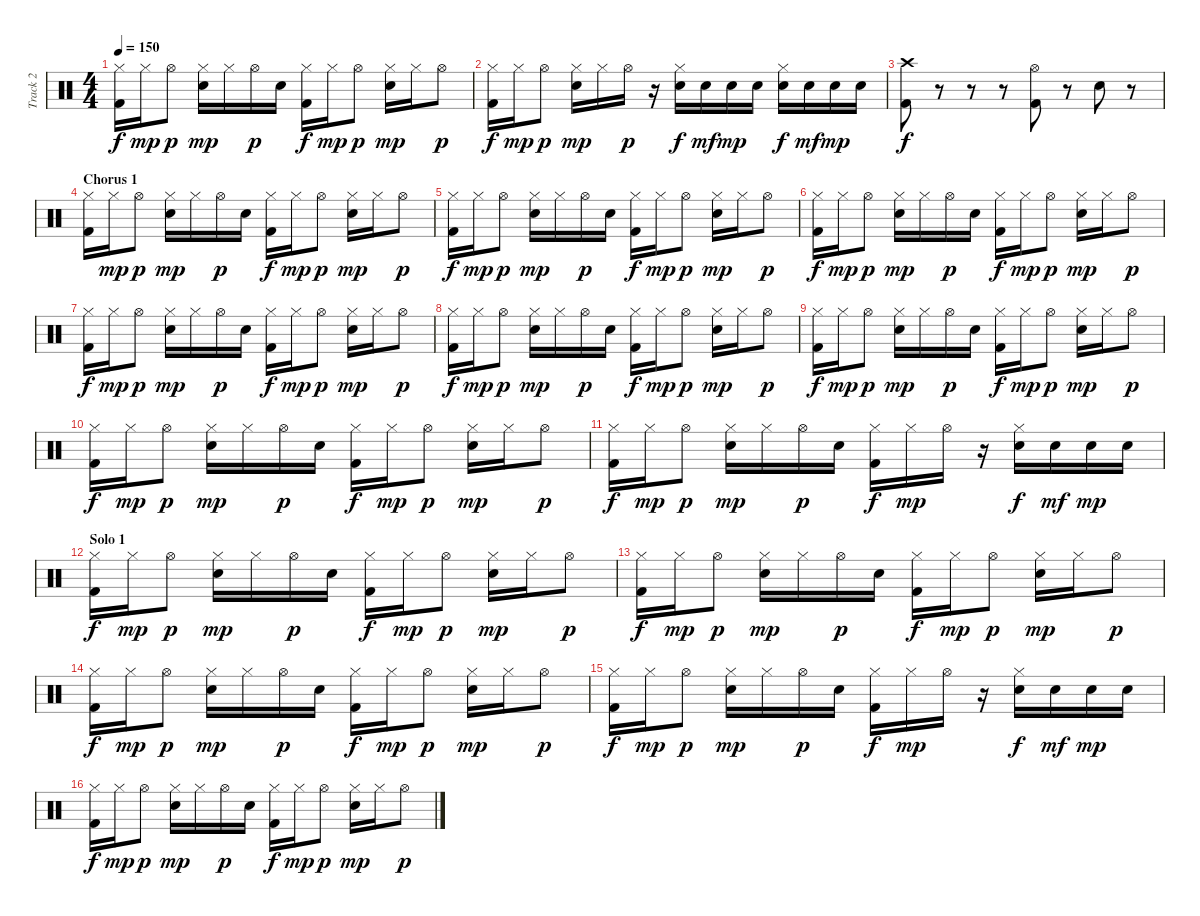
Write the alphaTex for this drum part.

\track ("Track 2" "Track 2") {instrument percussion}
\staff {score}
\articulation defaults
\ts (4 4)
\tempo 150
\clef neutral
\ks c
("Hi-Hat (closed)" "Kick (hit) 2").16{dy f} "Hi-Hat (closed)".16{dy mp} "Hi-Hat (open)".8{dy p} ("Hi-Hat (closed)" "Electric Snare (hit)").16{dy mp} "Hi-Hat (closed)".16 "Hi-Hat (open)".16{dy p} "Electric Snare (hit)".16 ("Hi-Hat (closed)" "Kick (hit) 2").16{dy f} "Hi-Hat (closed)".16{dy mp} "Hi-Hat (open)".8{dy p} ("Hi-Hat (closed)" "Electric Snare (hit)").16{dy mp} "Hi-Hat (closed)".16 "Hi-Hat (open)".8{dy p} |
("Hi-Hat (closed)" "Kick (hit) 2").16{dy f} "Hi-Hat (closed)".16{dy mp} "Hi-Hat (open)".8{dy p} ("Hi-Hat (closed)" "Electric Snare (hit)").16{dy mp} "Hi-Hat (closed)".16 "Hi-Hat (open)".16{dy p} r.16 ("Hi-Hat (closed)" "Electric Snare (hit)").16{dy f} "Electric Snare (hit)".16{dy mf} "Electric Snare (hit)".16{dy mp} "Electric Snare (hit)".16 ("Hi-Hat (closed)" "Electric Snare (hit)").16{dy f} "Electric Snare (hit)".16{dy mf} "Electric Snare (hit)".16{dy mp} "Electric Snare (hit)".16 |
("Crash high (hit)" "Kick (hit) 2").8{dy f} r.8 r.8 r.8 ("Hi-Hat (open)" "Kick (hit) 2").8 r.8 "Electric Snare (hit)".8 r.8 |
\section ("" "Chorus 1")
("Hi-Hat (closed)" "Kick (hit) 2").16 "Hi-Hat (closed)".16{dy mp} "Hi-Hat (open)".8{dy p} ("Hi-Hat (closed)" "Electric Snare (hit)").16{dy mp} "Hi-Hat (closed)".16 "Hi-Hat (open)".16{dy p} "Electric Snare (hit)".16 ("Hi-Hat (closed)" "Kick (hit) 2").16{dy f} "Hi-Hat (closed)".16{dy mp} "Hi-Hat (open)".8{dy p} ("Hi-Hat (closed)" "Electric Snare (hit)").16{dy mp} "Hi-Hat (closed)".16 "Hi-Hat (open)".8{dy p} |
("Hi-Hat (closed)" "Kick (hit) 2").16{dy f} "Hi-Hat (closed)".16{dy mp} "Hi-Hat (open)".8{dy p} ("Hi-Hat (closed)" "Electric Snare (hit)").16{dy mp} "Hi-Hat (closed)".16 "Hi-Hat (open)".16{dy p} "Electric Snare (hit)".16 ("Hi-Hat (closed)" "Kick (hit) 2").16{dy f} "Hi-Hat (closed)".16{dy mp} "Hi-Hat (open)".8{dy p} ("Hi-Hat (closed)" "Electric Snare (hit)").16{dy mp} "Hi-Hat (closed)".16 "Hi-Hat (open)".8{dy p} |
("Hi-Hat (closed)" "Kick (hit) 2").16{dy f} "Hi-Hat (closed)".16{dy mp} "Hi-Hat (open)".8{dy p} ("Hi-Hat (closed)" "Electric Snare (hit)").16{dy mp} "Hi-Hat (closed)".16 "Hi-Hat (open)".16{dy p} "Electric Snare (hit)".16 ("Hi-Hat (closed)" "Kick (hit) 2").16{dy f} "Hi-Hat (closed)".16{dy mp} "Hi-Hat (open)".8{dy p} ("Hi-Hat (closed)" "Electric Snare (hit)").16{dy mp} "Hi-Hat (closed)".16 "Hi-Hat (open)".8{dy p} |
("Hi-Hat (closed)" "Kick (hit) 2").16{dy f} "Hi-Hat (closed)".16{dy mp} "Hi-Hat (open)".8{dy p} ("Hi-Hat (closed)" "Electric Snare (hit)").16{dy mp} "Hi-Hat (closed)".16 "Hi-Hat (open)".16{dy p} "Electric Snare (hit)".16 ("Hi-Hat (closed)" "Kick (hit) 2").16{dy f} "Hi-Hat (closed)".16{dy mp} "Hi-Hat (open)".8{dy p} ("Hi-Hat (closed)" "Electric Snare (hit)").16{dy mp} "Hi-Hat (closed)".16 "Hi-Hat (open)".8{dy p} |
("Hi-Hat (closed)" "Kick (hit) 2").16{dy f} "Hi-Hat (closed)".16{dy mp} "Hi-Hat (open)".8{dy p} ("Hi-Hat (closed)" "Electric Snare (hit)").16{dy mp} "Hi-Hat (closed)".16 "Hi-Hat (open)".16{dy p} "Electric Snare (hit)".16 ("Hi-Hat (closed)" "Kick (hit) 2").16{dy f} "Hi-Hat (closed)".16{dy mp} "Hi-Hat (open)".8{dy p} ("Hi-Hat (closed)" "Electric Snare (hit)").16{dy mp} "Hi-Hat (closed)".16 "Hi-Hat (open)".8{dy p} |
("Hi-Hat (closed)" "Kick (hit) 2").16{dy f} "Hi-Hat (closed)".16{dy mp} "Hi-Hat (open)".8{dy p} ("Hi-Hat (closed)" "Electric Snare (hit)").16{dy mp} "Hi-Hat (closed)".16 "Hi-Hat (open)".16{dy p} "Electric Snare (hit)".16 ("Hi-Hat (closed)" "Kick (hit) 2").16{dy f} "Hi-Hat (closed)".16{dy mp} "Hi-Hat (open)".8{dy p} ("Hi-Hat (closed)" "Electric Snare (hit)").16{dy mp} "Hi-Hat (closed)".16 "Hi-Hat (open)".8{dy p} |
("Hi-Hat (closed)" "Kick (hit) 2").16{dy f} "Hi-Hat (closed)".16{dy mp} "Hi-Hat (open)".8{dy p} ("Hi-Hat (closed)" "Electric Snare (hit)").16{dy mp} "Hi-Hat (closed)".16 "Hi-Hat (open)".16{dy p} "Electric Snare (hit)".16 ("Hi-Hat (closed)" "Kick (hit) 2").16{dy f} "Hi-Hat (closed)".16{dy mp} "Hi-Hat (open)".8{dy p} ("Hi-Hat (closed)" "Electric Snare (hit)").16{dy mp} "Hi-Hat (closed)".16 "Hi-Hat (open)".8{dy p} |
("Hi-Hat (closed)" "Kick (hit) 2").16{dy f} "Hi-Hat (closed)".16{dy mp} "Hi-Hat (open)".8{dy p} ("Hi-Hat (closed)" "Electric Snare (hit)").16{dy mp} "Hi-Hat (closed)".16 "Hi-Hat (open)".16{dy p} "Electric Snare (hit)".16 ("Hi-Hat (closed)" "Kick (hit) 2").16{dy f} "Hi-Hat (closed)".16{dy mp} "Hi-Hat (open)".16 r.16 ("Hi-Hat (closed)" "Electric Snare (hit)").16{dy f} "Electric Snare (hit)".16{dy mf} "Electric Snare (hit)".16{dy mp} "Electric Snare (hit)".16 |
\section ("" "Solo 1")
("Hi-Hat (closed)" "Kick (hit) 2").16{dy f} "Hi-Hat (closed)".16{dy mp} "Hi-Hat (open)".8{dy p} ("Hi-Hat (closed)" "Electric Snare (hit)").16{dy mp} "Hi-Hat (closed)".16 "Hi-Hat (open)".16{dy p} "Electric Snare (hit)".16 ("Hi-Hat (closed)" "Kick (hit) 2").16{dy f} "Hi-Hat (closed)".16{dy mp} "Hi-Hat (open)".8{dy p} ("Hi-Hat (closed)" "Electric Snare (hit)").16{dy mp} "Hi-Hat (closed)".16 "Hi-Hat (open)".8{dy p} |
("Hi-Hat (closed)" "Kick (hit) 2").16{dy f} "Hi-Hat (closed)".16{dy mp} "Hi-Hat (open)".8{dy p} ("Hi-Hat (closed)" "Electric Snare (hit)").16{dy mp} "Hi-Hat (closed)".16 "Hi-Hat (open)".16{dy p} "Electric Snare (hit)".16 ("Hi-Hat (closed)" "Kick (hit) 2").16{dy f} "Hi-Hat (closed)".16{dy mp} "Hi-Hat (open)".8{dy p} ("Hi-Hat (closed)" "Electric Snare (hit)").16{dy mp} "Hi-Hat (closed)".16 "Hi-Hat (open)".8{dy p} |
("Hi-Hat (closed)" "Kick (hit) 2").16{dy f} "Hi-Hat (closed)".16{dy mp} "Hi-Hat (open)".8{dy p} ("Hi-Hat (closed)" "Electric Snare (hit)").16{dy mp} "Hi-Hat (closed)".16 "Hi-Hat (open)".16{dy p} "Electric Snare (hit)".16 ("Hi-Hat (closed)" "Kick (hit) 2").16{dy f} "Hi-Hat (closed)".16{dy mp} "Hi-Hat (open)".8{dy p} ("Hi-Hat (closed)" "Electric Snare (hit)").16{dy mp} "Hi-Hat (closed)".16 "Hi-Hat (open)".8{dy p} |
("Hi-Hat (closed)" "Kick (hit) 2").16{dy f} "Hi-Hat (closed)".16{dy mp} "Hi-Hat (open)".8{dy p} ("Hi-Hat (closed)" "Electric Snare (hit)").16{dy mp} "Hi-Hat (closed)".16 "Hi-Hat (open)".16{dy p} "Electric Snare (hit)".16 ("Hi-Hat (closed)" "Kick (hit) 2").16{dy f} "Hi-Hat (closed)".16{dy mp} "Hi-Hat (open)".16 r.16 ("Hi-Hat (closed)" "Electric Snare (hit)").16{dy f} "Electric Snare (hit)".16{dy mf} "Electric Snare (hit)".16{dy mp} "Electric Snare (hit)".16 |
("Hi-Hat (closed)" "Kick (hit) 2").16{dy f} "Hi-Hat (closed)".16{dy mp} "Hi-Hat (open)".8{dy p} ("Hi-Hat (closed)" "Electric Snare (hit)").16{dy mp} "Hi-Hat (closed)".16 "Hi-Hat (open)".16{dy p} "Electric Snare (hit)".16 ("Hi-Hat (closed)" "Kick (hit) 2").16{dy f} "Hi-Hat (closed)".16{dy mp} "Hi-Hat (open)".8{dy p} ("Hi-Hat (closed)" "Electric Snare (hit)").16{dy mp} "Hi-Hat (closed)".16 "Hi-Hat (open)".8{dy p}
